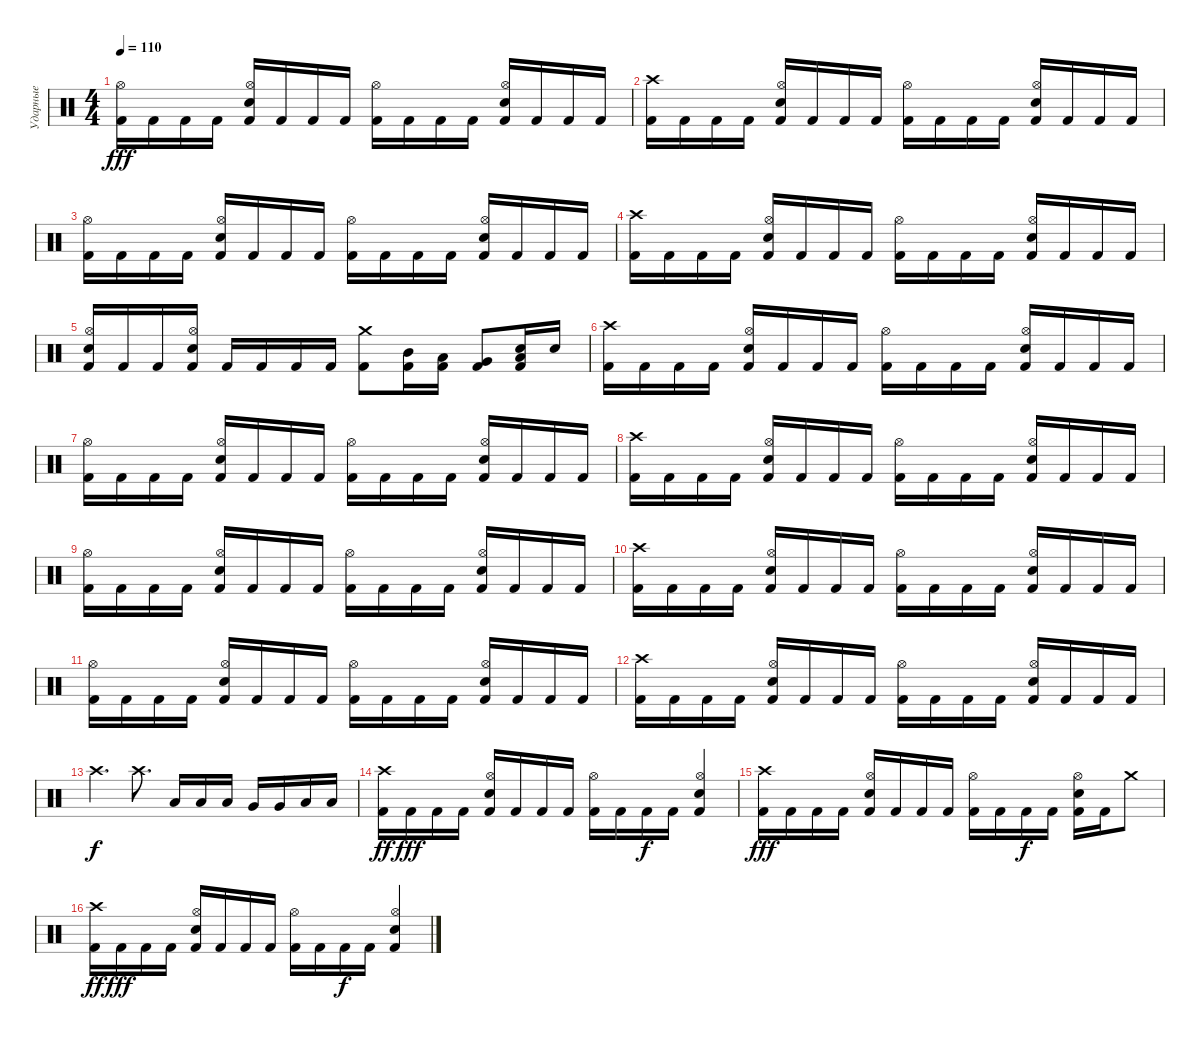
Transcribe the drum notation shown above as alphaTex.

\track ("Ударные" "Ударные") {instrument percussion}
\staff {score}
\articulation defaults
\ts (4 4)
\tempo 110
\clef neutral
\ks c
("Kick (hit) 2" "Hi-Hat (open)").16{dy fff} "Kick (hit) 2".16 "Kick (hit) 2".16 "Kick (hit) 2".16 ("Kick (hit) 2" "Hi-Hat (open)" "Snare (hit) 2").16 "Kick (hit) 2".16 "Kick (hit) 2".16 "Kick (hit) 2".16 ("Kick (hit) 2" "Hi-Hat (open)").16 "Kick (hit) 2".16 "Kick (hit) 2".16 "Kick (hit) 2".16 ("Kick (hit) 2" "Hi-Hat (open)" "Snare (hit) 2").16 "Kick (hit) 2".16 "Kick (hit) 2".16 "Kick (hit) 2".16 |
("Kick (hit) 2" "Crash high (hit)").16 "Kick (hit) 2".16 "Kick (hit) 2".16 "Kick (hit) 2".16 ("Kick (hit) 2" "Hi-Hat (open)" "Snare (hit) 2").16 "Kick (hit) 2".16 "Kick (hit) 2".16 "Kick (hit) 2".16 ("Kick (hit) 2" "Hi-Hat (open)").16 "Kick (hit) 2".16 "Kick (hit) 2".16 "Kick (hit) 2".16 ("Kick (hit) 2" "Hi-Hat (open)" "Snare (hit) 2").16 "Kick (hit) 2".16 "Kick (hit) 2".16 "Kick (hit) 2".16 |
("Kick (hit) 2" "Hi-Hat (open)").16 "Kick (hit) 2".16 "Kick (hit) 2".16 "Kick (hit) 2".16 ("Kick (hit) 2" "Hi-Hat (open)" "Snare (hit) 2").16 "Kick (hit) 2".16 "Kick (hit) 2".16 "Kick (hit) 2".16 ("Kick (hit) 2" "Hi-Hat (open)").16 "Kick (hit) 2".16 "Kick (hit) 2".16 "Kick (hit) 2".16 ("Kick (hit) 2" "Hi-Hat (open)" "Snare (hit) 2").16 "Kick (hit) 2".16 "Kick (hit) 2".16 "Kick (hit) 2".16 |
("Kick (hit) 2" "Crash high (hit)").16 "Kick (hit) 2".16 "Kick (hit) 2".16 "Kick (hit) 2".16 ("Kick (hit) 2" "Hi-Hat (open)" "Snare (hit) 2").16 "Kick (hit) 2".16 "Kick (hit) 2".16 "Kick (hit) 2".16 ("Kick (hit) 2" "Hi-Hat (open)").16 "Kick (hit) 2".16 "Kick (hit) 2".16 "Kick (hit) 2".16 ("Kick (hit) 2" "Hi-Hat (open)" "Snare (hit) 2").16 "Kick (hit) 2".16 "Kick (hit) 2".16 "Kick (hit) 2".16 |
("Kick (hit) 2" "Hi-Hat (open)" "Snare (hit) 2").16 "Kick (hit) 2".16 "Kick (hit) 2".16 ("Kick (hit) 2" "Hi-Hat (open)" "Snare (hit) 2").16 "Kick (hit) 2".16 "Kick (hit) 2".16 "Kick (hit) 2".16 "Kick (hit) 2".16 ("Kick (hit) 2" "Crash medium (hit)").8 ("Kick (hit) 2" "Mid Tom (hit)").16 ("Kick (hit) 2" "Low Tom (hit)").16 ("Kick (hit) 2" "Very Low Tom (hit)").8 ("Kick (hit) 2" "Low Floor Tom (hit)" "Snare (hit) 2").16 "Snare (hit) 2".16 |
("Kick (hit) 2" "Crash high (hit)").16 "Kick (hit) 2".16 "Kick (hit) 2".16 "Kick (hit) 2".16 ("Kick (hit) 2" "Hi-Hat (open)" "Snare (hit) 2").16 "Kick (hit) 2".16 "Kick (hit) 2".16 "Kick (hit) 2".16 ("Kick (hit) 2" "Hi-Hat (open)").16 "Kick (hit) 2".16 "Kick (hit) 2".16 "Kick (hit) 2".16 ("Kick (hit) 2" "Hi-Hat (open)" "Snare (hit) 2").16 "Kick (hit) 2".16 "Kick (hit) 2".16 "Kick (hit) 2".16 |
("Kick (hit) 2" "Hi-Hat (open)").16 "Kick (hit) 2".16 "Kick (hit) 2".16 "Kick (hit) 2".16 ("Kick (hit) 2" "Hi-Hat (open)" "Snare (hit) 2").16 "Kick (hit) 2".16 "Kick (hit) 2".16 "Kick (hit) 2".16 ("Kick (hit) 2" "Hi-Hat (open)").16 "Kick (hit) 2".16 "Kick (hit) 2".16 "Kick (hit) 2".16 ("Kick (hit) 2" "Hi-Hat (open)" "Snare (hit) 2").16 "Kick (hit) 2".16 "Kick (hit) 2".16 "Kick (hit) 2".16 |
("Kick (hit) 2" "Crash high (hit)").16 "Kick (hit) 2".16 "Kick (hit) 2".16 "Kick (hit) 2".16 ("Kick (hit) 2" "Hi-Hat (open)" "Snare (hit) 2").16 "Kick (hit) 2".16 "Kick (hit) 2".16 "Kick (hit) 2".16 ("Kick (hit) 2" "Hi-Hat (open)").16 "Kick (hit) 2".16 "Kick (hit) 2".16 "Kick (hit) 2".16 ("Kick (hit) 2" "Hi-Hat (open)" "Snare (hit) 2").16 "Kick (hit) 2".16 "Kick (hit) 2".16 "Kick (hit) 2".16 |
("Kick (hit) 2" "Hi-Hat (open)").16 "Kick (hit) 2".16 "Kick (hit) 2".16 "Kick (hit) 2".16 ("Kick (hit) 2" "Hi-Hat (open)" "Snare (hit) 2").16 "Kick (hit) 2".16 "Kick (hit) 2".16 "Kick (hit) 2".16 ("Kick (hit) 2" "Hi-Hat (open)").16 "Kick (hit) 2".16 "Kick (hit) 2".16 "Kick (hit) 2".16 ("Kick (hit) 2" "Hi-Hat (open)" "Snare (hit) 2").16 "Kick (hit) 2".16 "Kick (hit) 2".16 "Kick (hit) 2".16 |
("Kick (hit) 2" "Crash high (hit)").16 "Kick (hit) 2".16 "Kick (hit) 2".16 "Kick (hit) 2".16 ("Kick (hit) 2" "Hi-Hat (open)" "Snare (hit) 2").16 "Kick (hit) 2".16 "Kick (hit) 2".16 "Kick (hit) 2".16 ("Kick (hit) 2" "Hi-Hat (open)").16 "Kick (hit) 2".16 "Kick (hit) 2".16 "Kick (hit) 2".16 ("Kick (hit) 2" "Hi-Hat (open)" "Snare (hit) 2").16 "Kick (hit) 2".16 "Kick (hit) 2".16 "Kick (hit) 2".16 |
("Kick (hit) 2" "Hi-Hat (open)").16 "Kick (hit) 2".16 "Kick (hit) 2".16 "Kick (hit) 2".16 ("Kick (hit) 2" "Hi-Hat (open)" "Snare (hit) 2").16 "Kick (hit) 2".16 "Kick (hit) 2".16 "Kick (hit) 2".16 ("Kick (hit) 2" "Hi-Hat (open)").16 "Kick (hit) 2".16 "Kick (hit) 2".16 "Kick (hit) 2".16 ("Kick (hit) 2" "Hi-Hat (open)" "Snare (hit) 2").16 "Kick (hit) 2".16 "Kick (hit) 2".16 "Kick (hit) 2".16 |
("Kick (hit) 2" "Crash high (hit)").16 "Kick (hit) 2".16 "Kick (hit) 2".16 "Kick (hit) 2".16 ("Kick (hit) 2" "Hi-Hat (open)" "Snare (hit) 2").16 "Kick (hit) 2".16 "Kick (hit) 2".16 "Kick (hit) 2".16 ("Kick (hit) 2" "Hi-Hat (open)").16 "Kick (hit) 2".16 "Kick (hit) 2".16 "Kick (hit) 2".16 ("Kick (hit) 2" "Hi-Hat (open)" "Snare (hit) 2").16 "Kick (hit) 2".16 "Kick (hit) 2".16 "Kick (hit) 2".16 |
"Crash high (hit)".4{d dy f} "Crash high (hit)".8{d} "Low Tom (hit)".16 "Low Tom (hit)".16 "Low Tom (hit)".16 "Very Low Tom (hit)".16 "Very Low Tom (hit)".16 "Low Floor Tom (hit)".16 "Low Floor Tom (hit)".16 |
("Kick (hit) 2" "Crash high (hit)").16{dy ff} "Kick (hit) 2".16{dy fff} "Kick (hit) 2".16 "Kick (hit) 2".16 ("Kick (hit) 2" "Hi-Hat (open)" "Snare (hit) 2").16 "Kick (hit) 2".16 "Kick (hit) 2".16 "Kick (hit) 2".16 ("Kick (hit) 2" "Hi-Hat (open)").16 "Kick (hit) 2".16 "Kick (hit) 2".16{dy f} "Kick (hit) 2".16 ("Kick (hit) 2" "Hi-Hat (open)" "Snare (hit) 2").4 |
("Kick (hit) 2" "Crash high (hit)").16{dy fff} "Kick (hit) 2".16 "Kick (hit) 2".16 "Kick (hit) 2".16 ("Kick (hit) 2" "Hi-Hat (open)" "Snare (hit) 2").16 "Kick (hit) 2".16 "Kick (hit) 2".16 "Kick (hit) 2".16 ("Kick (hit) 2" "Hi-Hat (open)").16 "Kick (hit) 2".16 "Kick (hit) 2".16{dy f} "Kick (hit) 2".16 ("Kick (hit) 2" "Hi-Hat (open)" "Snare (hit) 2").16 "Kick (hit) 2".16 "Crash medium (hit)".8 |
("Kick (hit) 2" "Crash high (hit)").16{dy ff} "Kick (hit) 2".16{dy fff} "Kick (hit) 2".16 "Kick (hit) 2".16 ("Kick (hit) 2" "Hi-Hat (open)" "Snare (hit) 2").16 "Kick (hit) 2".16 "Kick (hit) 2".16 "Kick (hit) 2".16 ("Kick (hit) 2" "Hi-Hat (open)").16 "Kick (hit) 2".16 "Kick (hit) 2".16{dy f} "Kick (hit) 2".16 ("Kick (hit) 2" "Hi-Hat (open)" "Snare (hit) 2").4
